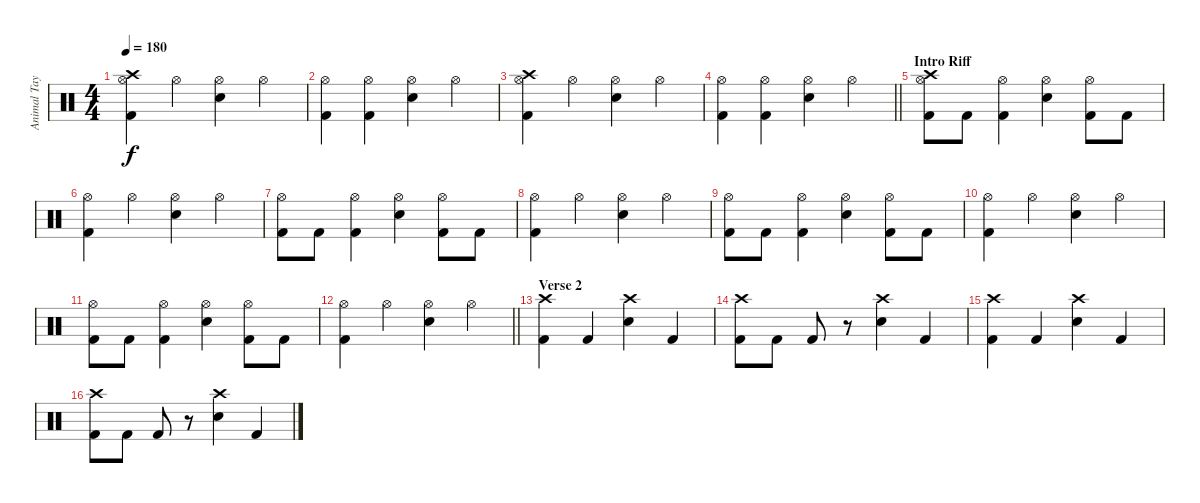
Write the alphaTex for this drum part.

\track ("Animal Taylor" "Animal Tay") {instrument percussion}
\staff {score}
\articulation defaults
\ts (4 4)
\tempo 180
\clef neutral
\ks c
("Hi-Hat (open)" "Crash high (hit)" "Kick (hit) 2").4{dy f} "Hi-Hat (open)".4 ("Hi-Hat (open)" "Snare (hit) 2").4 "Hi-Hat (open)".4 |
("Hi-Hat (open)" "Kick (hit) 2").4 ("Hi-Hat (open)" "Kick (hit) 2").4 ("Hi-Hat (open)" "Snare (hit) 2").4 "Hi-Hat (open)".4 |
("Hi-Hat (open)" "Crash high (hit)" "Kick (hit) 2").4 "Hi-Hat (open)".4 ("Hi-Hat (open)" "Snare (hit) 2").4 "Hi-Hat (open)".4 |
\barLineRight lightlight
("Hi-Hat (open)" "Kick (hit) 2").4 ("Hi-Hat (open)" "Kick (hit) 2").4 ("Hi-Hat (open)" "Snare (hit) 2").4 "Hi-Hat (open)".4 |
\section ("" "Intro Riff")
("Hi-Hat (open)" "Crash high (hit)" "Kick (hit) 2").8 "Kick (hit) 2".8 ("Hi-Hat (open)" "Kick (hit) 2").4 ("Hi-Hat (open)" "Snare (hit) 2").4 ("Hi-Hat (open)" "Kick (hit) 2").8 "Kick (hit) 2".8 |
("Hi-Hat (open)" "Kick (hit) 2").4 "Hi-Hat (open)".4 ("Hi-Hat (open)" "Snare (hit) 2").4 "Hi-Hat (open)".4 |
("Hi-Hat (open)" "Kick (hit) 2").8 "Kick (hit) 2".8 ("Hi-Hat (open)" "Kick (hit) 2").4 ("Hi-Hat (open)" "Snare (hit) 2").4 ("Hi-Hat (open)" "Kick (hit) 2").8 "Kick (hit) 2".8 |
("Hi-Hat (open)" "Kick (hit) 2").4 "Hi-Hat (open)".4 ("Hi-Hat (open)" "Snare (hit) 2").4 "Hi-Hat (open)".4 |
("Hi-Hat (open)" "Kick (hit) 2").8 "Kick (hit) 2".8 ("Hi-Hat (open)" "Kick (hit) 2").4 ("Hi-Hat (open)" "Snare (hit) 2").4 ("Hi-Hat (open)" "Kick (hit) 2").8 "Kick (hit) 2".8 |
("Hi-Hat (open)" "Kick (hit) 2").4 "Hi-Hat (open)".4 ("Hi-Hat (open)" "Snare (hit) 2").4 "Hi-Hat (open)".4 |
("Hi-Hat (open)" "Kick (hit) 2").8 "Kick (hit) 2".8 ("Hi-Hat (open)" "Kick (hit) 2").4 ("Hi-Hat (open)" "Snare (hit) 2").4 ("Hi-Hat (open)" "Kick (hit) 2").8 "Kick (hit) 2".8 |
\barLineRight lightlight
("Hi-Hat (open)" "Kick (hit) 2").4 "Hi-Hat (open)".4 ("Hi-Hat (open)" "Snare (hit) 2").4 "Hi-Hat (open)".4 |
\section ("" "Verse 2")
("Crash high (hit)" "Kick (hit) 2").4 "Kick (hit) 2".4 ("Crash high (hit)" "Snare (hit) 2").4 "Kick (hit) 2".4 |
("Crash high (hit)" "Kick (hit) 2").8 "Kick (hit) 2".8 "Kick (hit) 2".8 r.8 ("Crash high (hit)" "Snare (hit) 2").4 "Kick (hit) 2".4 |
("Crash high (hit)" "Kick (hit) 2").4 "Kick (hit) 2".4 ("Crash high (hit)" "Snare (hit) 2").4 "Kick (hit) 2".4 |
("Crash high (hit)" "Kick (hit) 2").8 "Kick (hit) 2".8 "Kick (hit) 2".8 r.8 ("Crash high (hit)" "Snare (hit) 2").4 "Kick (hit) 2".4
